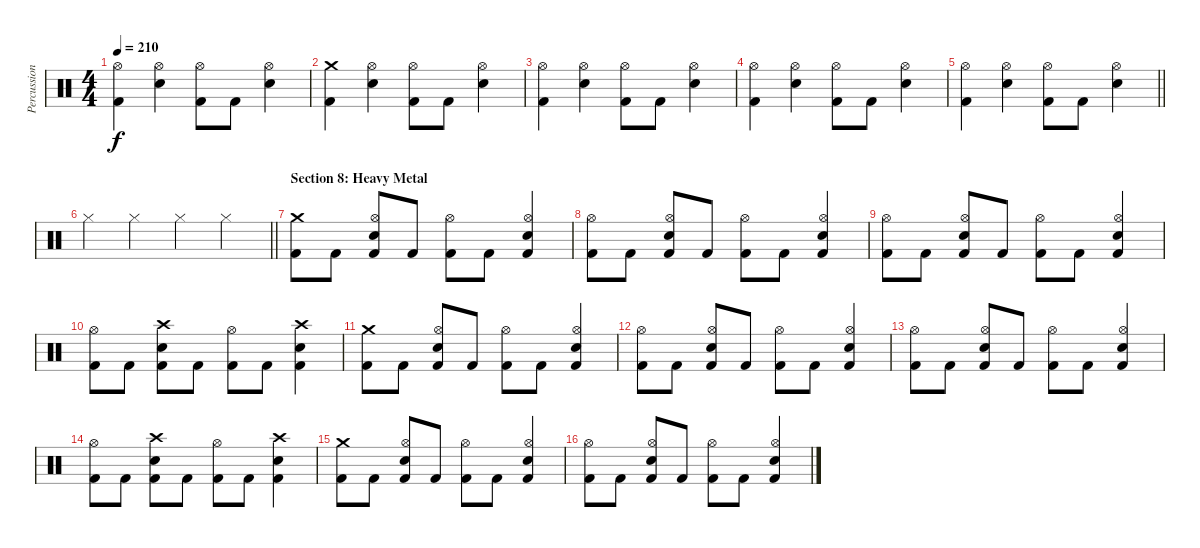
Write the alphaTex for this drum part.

\track ("Percussion" "Percussion") {instrument percussion}
\staff {score}
\articulation defaults
\ts (4 4)
\tempo 210
\clef neutral
\ks c
("Kick (hit) 2" "Hi-Hat (open)").4{dy f} ("Electric Snare (hit)" "Hi-Hat (open)").4 ("Kick (hit) 2" "Hi-Hat (open)").8 "Kick (hit) 2".8 ("Electric Snare (hit)" "Hi-Hat (open)").4 |
("Kick (hit) 2" "Crash medium (hit)").4 ("Electric Snare (hit)" "Hi-Hat (open)").4 ("Kick (hit) 2" "Hi-Hat (open)").8 "Kick (hit) 2".8 ("Electric Snare (hit)" "Hi-Hat (open)").4 |
("Kick (hit) 2" "Hi-Hat (open)").4 ("Electric Snare (hit)" "Hi-Hat (open)").4 ("Kick (hit) 2" "Hi-Hat (open)").8 "Kick (hit) 2".8 ("Electric Snare (hit)" "Hi-Hat (open)").4 |
("Kick (hit) 2" "Hi-Hat (open)").4 ("Electric Snare (hit)" "Hi-Hat (open)").4 ("Kick (hit) 2" "Hi-Hat (open)").8 "Kick (hit) 2".8 ("Electric Snare (hit)" "Hi-Hat (open)").4 |
\barLineRight lightlight
("Kick (hit) 2" "Hi-Hat (open)").4 ("Electric Snare (hit)" "Hi-Hat (open)").4 ("Kick (hit) 2" "Hi-Hat (open)").8 "Kick (hit) 2".8 ("Electric Snare (hit)" "Hi-Hat (open)").4 |
\barLineRight lightlight "Hi-Hat (closed)".4 "Hi-Hat (closed)".4 "Hi-Hat (closed)".4 "Hi-Hat (closed)".4
|
\section ("" "Section 8: Heavy Metal")
("Kick (hit) 2" "Crash medium (hit)").8 "Kick (hit) 2".8 ("Kick (hit) 2" "Hi-Hat (open)" "Electric Snare (hit)").8 "Kick (hit) 2".8 ("Kick (hit) 2" "Hi-Hat (open)").8 "Kick (hit) 2".8 ("Kick (hit) 2" "Hi-Hat (open)" "Electric Snare (hit)").4 |
("Kick (hit) 2" "Hi-Hat (open)").8 "Kick (hit) 2".8 ("Kick (hit) 2" "Hi-Hat (open)" "Electric Snare (hit)").8 "Kick (hit) 2".8 ("Kick (hit) 2" "Hi-Hat (open)").8 "Kick (hit) 2".8 ("Kick (hit) 2" "Hi-Hat (open)" "Electric Snare (hit)").4 |
("Kick (hit) 2" "Hi-Hat (open)").8 "Kick (hit) 2".8 ("Kick (hit) 2" "Hi-Hat (open)" "Electric Snare (hit)").8 "Kick (hit) 2".8 ("Kick (hit) 2" "Hi-Hat (open)").8 "Kick (hit) 2".8 ("Kick (hit) 2" "Hi-Hat (open)" "Electric Snare (hit)").4 |
("Kick (hit) 2" "Hi-Hat (open)").8 "Kick (hit) 2".8 ("Kick (hit) 2" "Electric Snare (hit)" "Crash high (hit)").8 "Kick (hit) 2".8 ("Kick (hit) 2" "Hi-Hat (open)").8 "Kick (hit) 2".8 ("Kick (hit) 2" "Electric Snare (hit)" "Crash high (hit)").4 |
("Kick (hit) 2" "Crash medium (hit)").8 "Kick (hit) 2".8 ("Kick (hit) 2" "Hi-Hat (open)" "Electric Snare (hit)").8 "Kick (hit) 2".8 ("Kick (hit) 2" "Hi-Hat (open)").8 "Kick (hit) 2".8 ("Kick (hit) 2" "Hi-Hat (open)" "Electric Snare (hit)").4 |
("Kick (hit) 2" "Hi-Hat (open)").8 "Kick (hit) 2".8 ("Kick (hit) 2" "Hi-Hat (open)" "Electric Snare (hit)").8 "Kick (hit) 2".8 ("Kick (hit) 2" "Hi-Hat (open)").8 "Kick (hit) 2".8 ("Kick (hit) 2" "Hi-Hat (open)" "Electric Snare (hit)").4 |
("Kick (hit) 2" "Hi-Hat (open)").8 "Kick (hit) 2".8 ("Kick (hit) 2" "Hi-Hat (open)" "Electric Snare (hit)").8 "Kick (hit) 2".8 ("Kick (hit) 2" "Hi-Hat (open)").8 "Kick (hit) 2".8 ("Kick (hit) 2" "Hi-Hat (open)" "Electric Snare (hit)").4 |
("Kick (hit) 2" "Hi-Hat (open)").8 "Kick (hit) 2".8 ("Kick (hit) 2" "Electric Snare (hit)" "Crash high (hit)").8 "Kick (hit) 2".8 ("Kick (hit) 2" "Hi-Hat (open)").8 "Kick (hit) 2".8 ("Kick (hit) 2" "Electric Snare (hit)" "Crash high (hit)").4 |
("Kick (hit) 2" "Crash medium (hit)").8 "Kick (hit) 2".8 ("Kick (hit) 2" "Hi-Hat (open)" "Electric Snare (hit)").8 "Kick (hit) 2".8 ("Kick (hit) 2" "Hi-Hat (open)").8 "Kick (hit) 2".8 ("Kick (hit) 2" "Hi-Hat (open)" "Electric Snare (hit)").4 |
("Kick (hit) 2" "Hi-Hat (open)").8 "Kick (hit) 2".8 ("Kick (hit) 2" "Hi-Hat (open)" "Electric Snare (hit)").8 "Kick (hit) 2".8 ("Kick (hit) 2" "Hi-Hat (open)").8 "Kick (hit) 2".8 ("Kick (hit) 2" "Hi-Hat (open)" "Electric Snare (hit)").4
